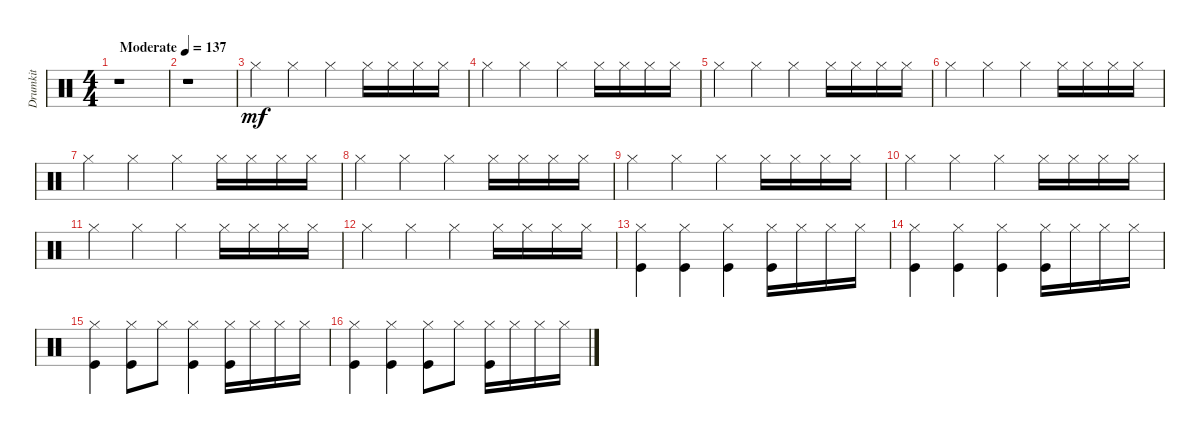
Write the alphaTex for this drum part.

\track ("Drumkit" "Drumkit") {instrument percussion}
\staff {score}
\articulation defaults
\ts (4 4)
\tempo (137 "Moderate")
\clef neutral
\ks c
r.1{dy mf} |
r.1 |
"Hi-Hat (closed)".4 "Hi-Hat (closed)".4 "Hi-Hat (closed)".4 "Hi-Hat (closed)".16 "Hi-Hat (closed)".16 "Hi-Hat (closed)".16 "Hi-Hat (closed)".16 |
"Hi-Hat (closed)".4 "Hi-Hat (closed)".4 "Hi-Hat (closed)".4 "Hi-Hat (closed)".16 "Hi-Hat (closed)".16 "Hi-Hat (closed)".16 "Hi-Hat (closed)".16 |
"Hi-Hat (closed)".4 "Hi-Hat (closed)".4 "Hi-Hat (closed)".4 "Hi-Hat (closed)".16 "Hi-Hat (closed)".16 "Hi-Hat (closed)".16 "Hi-Hat (closed)".16 |
"Hi-Hat (closed)".4 "Hi-Hat (closed)".4 "Hi-Hat (closed)".4 "Hi-Hat (closed)".16 "Hi-Hat (closed)".16 "Hi-Hat (closed)".16 "Hi-Hat (closed)".16 |
"Hi-Hat (closed)".4 "Hi-Hat (closed)".4 "Hi-Hat (closed)".4 "Hi-Hat (closed)".16 "Hi-Hat (closed)".16 "Hi-Hat (closed)".16 "Hi-Hat (closed)".16 |
"Hi-Hat (closed)".4 "Hi-Hat (closed)".4 "Hi-Hat (closed)".4 "Hi-Hat (closed)".16 "Hi-Hat (closed)".16 "Hi-Hat (closed)".16 "Hi-Hat (closed)".16 |
"Hi-Hat (closed)".4 "Hi-Hat (closed)".4 "Hi-Hat (closed)".4 "Hi-Hat (closed)".16 "Hi-Hat (closed)".16 "Hi-Hat (closed)".16 "Hi-Hat (closed)".16 |
"Hi-Hat (closed)".4 "Hi-Hat (closed)".4 "Hi-Hat (closed)".4 "Hi-Hat (closed)".16 "Hi-Hat (closed)".16 "Hi-Hat (closed)".16 "Hi-Hat (closed)".16 |
"Hi-Hat (closed)".4 "Hi-Hat (closed)".4 "Hi-Hat (closed)".4 "Hi-Hat (closed)".16 "Hi-Hat (closed)".16 "Hi-Hat (closed)".16 "Hi-Hat (closed)".16 |
"Hi-Hat (closed)".4 "Hi-Hat (closed)".4 "Hi-Hat (closed)".4 "Hi-Hat (closed)".16 "Hi-Hat (closed)".16 "Hi-Hat (closed)".16 "Hi-Hat (closed)".16 |
("Hi-Hat (closed)" "Kick (hit)").4 ("Hi-Hat (closed)" "Kick (hit)").4 ("Hi-Hat (closed)" "Kick (hit)").4 ("Hi-Hat (closed)" "Kick (hit)").16 "Hi-Hat (closed)".16 "Hi-Hat (closed)".16 "Hi-Hat (closed)".16 |
("Hi-Hat (closed)" "Kick (hit)").4 ("Hi-Hat (closed)" "Kick (hit)").4 ("Hi-Hat (closed)" "Kick (hit)").4 ("Hi-Hat (closed)" "Kick (hit)").16 "Hi-Hat (closed)".16 "Hi-Hat (closed)".16 "Hi-Hat (closed)".16 |
("Hi-Hat (closed)" "Kick (hit)").4 ("Hi-Hat (closed)" "Kick (hit)").8 "Hi-Hat (closed)".8 ("Hi-Hat (closed)" "Kick (hit)").4 ("Hi-Hat (closed)" "Kick (hit)").16 "Hi-Hat (closed)".16 "Hi-Hat (closed)".16 "Hi-Hat (closed)".16 |
("Hi-Hat (closed)" "Kick (hit)").4 ("Hi-Hat (closed)" "Kick (hit)").4 ("Hi-Hat (closed)" "Kick (hit)").8 "Hi-Hat (closed)".8 ("Hi-Hat (closed)" "Kick (hit)").16 "Hi-Hat (closed)".16 "Hi-Hat (closed)".16 "Hi-Hat (closed)".16
